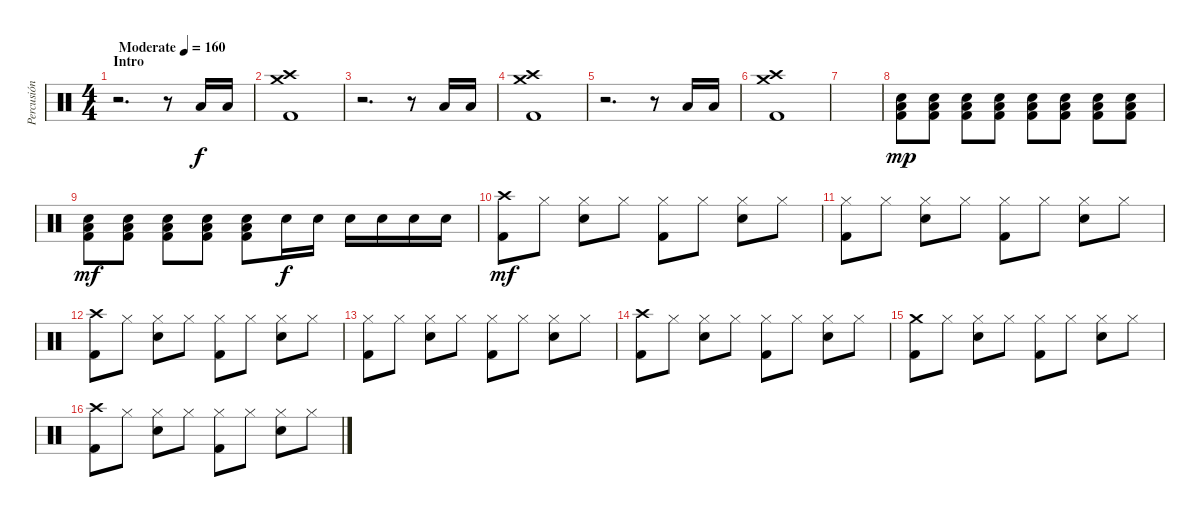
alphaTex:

\track ("Percusión" "Percusión") {instrument percussion}
\staff {score}
\articulation defaults
\ts (4 4)
\section ("" "Intro")
\tempo (160 "Moderate")
\clef neutral
\ks c
r.2{d dy f} r.8 "Low Floor Tom (hit)".16 "Low Floor Tom (hit)".16 |
("Crash medium (hit)" "Crash high (hit)" "Kick (hit) 2").1 |
r.2{d} r.8 "Low Floor Tom (hit)".16 "Low Floor Tom (hit)".16 |
("Crash medium (hit)" "Crash high (hit)" "Kick (hit) 2").1 |
r.2{d} r.8 "Low Floor Tom (hit)".16 "Low Floor Tom (hit)".16 |
("Crash medium (hit)" "Crash high (hit)" "Kick (hit) 2").1 |
|
("Electric Snare (hit)" "Low Floor Tom (hit)" "Kick (hit) 2").8{dy mp} ("Electric Snare (hit)" "Low Floor Tom (hit)" "Kick (hit) 2").8 ("Electric Snare (hit)" "Low Floor Tom (hit)" "Kick (hit) 2").8 ("Electric Snare (hit)" "Low Floor Tom (hit)" "Kick (hit) 2").8 ("Electric Snare (hit)" "Low Floor Tom (hit)" "Kick (hit) 2").8 ("Electric Snare (hit)" "Low Floor Tom (hit)" "Kick (hit) 2").8 ("Electric Snare (hit)" "Low Floor Tom (hit)" "Kick (hit) 2").8 ("Electric Snare (hit)" "Low Floor Tom (hit)" "Kick (hit) 2").8 |
("Electric Snare (hit)" "Low Floor Tom (hit)" "Kick (hit) 2").8{dy mf} ("Electric Snare (hit)" "Low Floor Tom (hit)" "Kick (hit) 2").8 ("Electric Snare (hit)" "Low Floor Tom (hit)" "Kick (hit) 2").8 ("Electric Snare (hit)" "Low Floor Tom (hit)" "Kick (hit) 2").8 ("Electric Snare (hit)" "Low Floor Tom (hit)" "Kick (hit) 2").8 "Electric Snare (hit)".16{dy f} "Electric Snare (hit)".16 "Electric Snare (hit)".16 "Electric Snare (hit)".16 "Electric Snare (hit)".16 "Electric Snare (hit)".16 |
("Crash high (hit)" "Kick (hit) 2").8{dy mf} "Hi-Hat (closed)".8 ("Hi-Hat (closed)" "Electric Snare (hit)").8 "Hi-Hat (closed)".8 ("Hi-Hat (closed)" "Kick (hit) 2").8 "Hi-Hat (closed)".8 ("Hi-Hat (closed)" "Electric Snare (hit)").8 "Hi-Hat (closed)".8 |
("Hi-Hat (closed)" "Kick (hit) 2").8 "Hi-Hat (closed)".8 ("Hi-Hat (closed)" "Electric Snare (hit)").8 "Hi-Hat (closed)".8 ("Hi-Hat (closed)" "Kick (hit) 2").8 "Hi-Hat (closed)".8 ("Hi-Hat (closed)" "Electric Snare (hit)").8 "Hi-Hat (closed)".8 |
("Crash high (hit)" "Kick (hit) 2").8 "Hi-Hat (closed)".8 ("Hi-Hat (closed)" "Electric Snare (hit)").8 "Hi-Hat (closed)".8 ("Hi-Hat (closed)" "Kick (hit) 2").8 "Hi-Hat (closed)".8 ("Hi-Hat (closed)" "Electric Snare (hit)").8 "Hi-Hat (closed)".8 |
("Hi-Hat (closed)" "Kick (hit) 2").8 "Hi-Hat (closed)".8 ("Hi-Hat (closed)" "Electric Snare (hit)").8 "Hi-Hat (closed)".8 ("Hi-Hat (closed)" "Kick (hit) 2").8 "Hi-Hat (closed)".8 ("Hi-Hat (closed)" "Electric Snare (hit)").8 "Hi-Hat (closed)".8 |
("Crash high (hit)" "Kick (hit) 2").8 "Hi-Hat (closed)".8 ("Hi-Hat (closed)" "Electric Snare (hit)").8 "Hi-Hat (closed)".8 ("Hi-Hat (closed)" "Kick (hit) 2").8 "Hi-Hat (closed)".8 ("Hi-Hat (closed)" "Electric Snare (hit)").8 "Hi-Hat (closed)".8 |
("Crash medium (hit)" "Kick (hit) 2").8 "Hi-Hat (closed)".8 ("Hi-Hat (closed)" "Electric Snare (hit)").8 "Hi-Hat (closed)".8 ("Hi-Hat (closed)" "Kick (hit) 2").8 "Hi-Hat (closed)".8 ("Hi-Hat (closed)" "Electric Snare (hit)").8 "Hi-Hat (closed)".8 |
("Crash high (hit)" "Kick (hit) 2").8 "Hi-Hat (closed)".8 ("Hi-Hat (closed)" "Electric Snare (hit)").8 "Hi-Hat (closed)".8 ("Hi-Hat (closed)" "Kick (hit) 2").8 "Hi-Hat (closed)".8 ("Hi-Hat (closed)" "Electric Snare (hit)").8 "Hi-Hat (closed)".8
